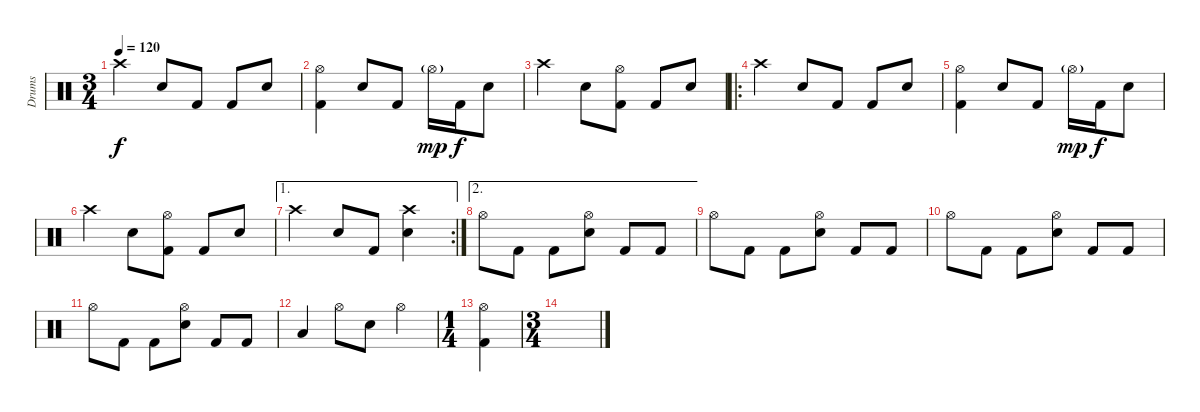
\track ("Drums" "Drums") {instrument percussion}
\staff {score}
\articulation defaults
\ts (3 4)
\tempo 120
\clef neutral
\ks c "Crash high (hit)".4{dy f} "Electric Snare (hit)".8 "Kick (hit) 2".8 "Kick (hit) 2".8 "Electric Snare (hit)".8
|
("Kick (hit) 2" "Hi-Hat (open)").4 "Electric Snare (hit)".8 "Kick (hit) 2".8 "Hi-Hat (open)"{g}.16{dy mp} "Kick (hit) 2".16{dy f} "Electric Snare (hit)".8 |
"Crash high (hit)".4 "Electric Snare (hit)".8 ("Kick (hit) 2" "Hi-Hat (open)").8 "Kick (hit) 2".8 "Electric Snare (hit)".8 |
\ro "Crash high (hit)".4 "Electric Snare (hit)".8 "Kick (hit) 2".8 "Kick (hit) 2".8 "Electric Snare (hit)".8
|
("Kick (hit) 2" "Hi-Hat (open)").4 "Electric Snare (hit)".8 "Kick (hit) 2".8 "Hi-Hat (open)"{g}.16{dy mp} "Kick (hit) 2".16{dy f} "Electric Snare (hit)".8 |
"Crash high (hit)".4 "Electric Snare (hit)".8 ("Kick (hit) 2" "Hi-Hat (open)").8 "Kick (hit) 2".8 "Electric Snare (hit)".8 |
\ae 1
\rc 2 "Crash high (hit)".4 "Electric Snare (hit)".8 "Kick (hit) 2".8
("Electric Snare (hit)" "Crash high (hit)").4 |
\ae 2 "Hi-Hat (open)".8 "Kick (hit) 2".8 "Kick (hit) 2".8
("Electric Snare (hit)" "Hi-Hat (open)").8 "Kick (hit) 2".8 "Kick (hit) 2".8 |
"Hi-Hat (open)".8 "Kick (hit) 2".8 "Kick (hit) 2".8 ("Electric Snare (hit)" "Hi-Hat (open)").8 "Kick (hit) 2".8 "Kick (hit) 2".8 |
"Hi-Hat (open)".8 "Kick (hit) 2".8 "Kick (hit) 2".8 ("Electric Snare (hit)" "Hi-Hat (open)").8 "Kick (hit) 2".8 "Kick (hit) 2".8 |
"Hi-Hat (open)".8 "Kick (hit) 2".8 "Kick (hit) 2".8 ("Electric Snare (hit)" "Hi-Hat (open)").8 "Kick (hit) 2".8 "Kick (hit) 2".8 |
"Low Tom (hit)".4 "Hi-Hat (open)".8 "Snare (hit) 2".8 "Hi-Hat (open)".4 |
\ts (1 4)
("Hi-Hat (open)" "Kick (hit) 2").4 |
\ts (3 4)
